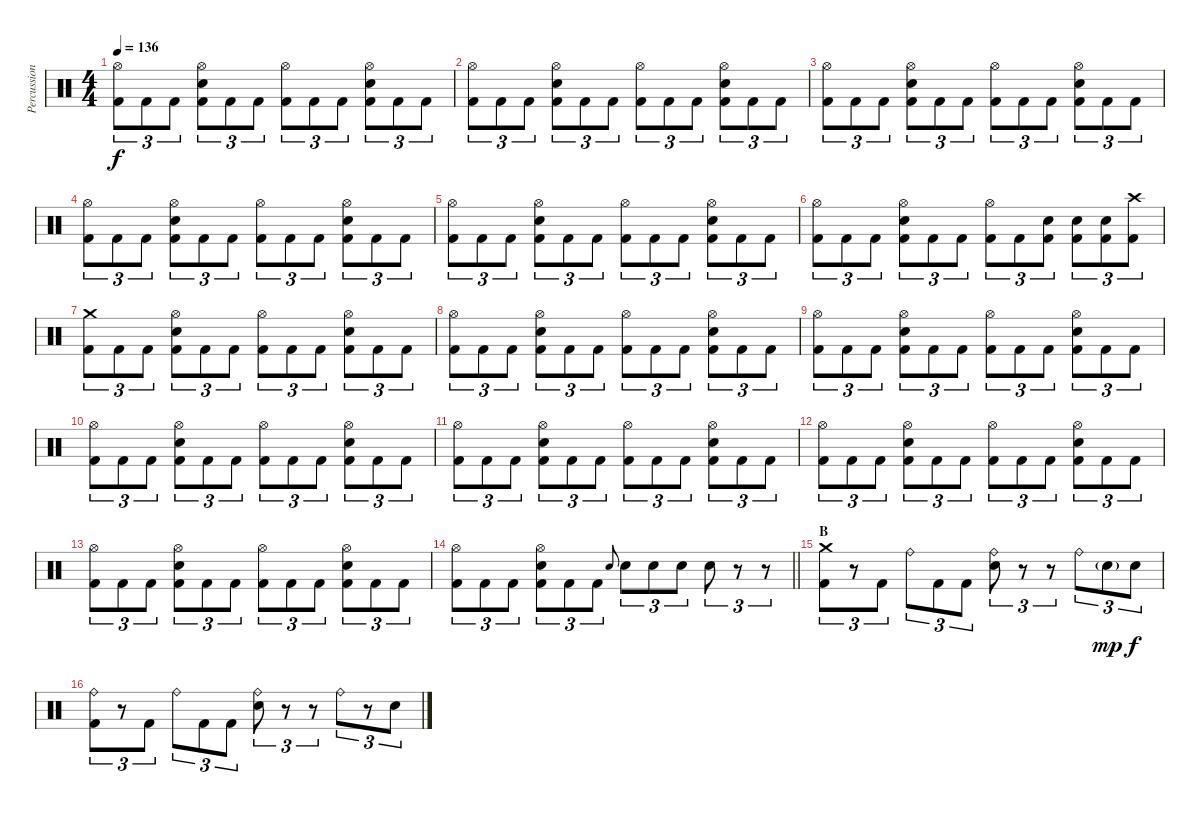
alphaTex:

\track ("Percussion" "Percussion") {instrument percussion}
\staff {score}
\articulation defaults
\ts (4 4)
\tempo 136
\clef neutral
\ks c
("Hi-Hat (open)" "Kick (hit) 2").8{tu (3 2) dy f} "Kick (hit) 2".8{tu (3 2)} "Kick (hit) 2".8{tu (3 2)} ("Hi-Hat (open)" "Electric Snare (hit)" "Kick (hit) 2").8{tu (3 2)} "Kick (hit) 2".8{tu (3 2)} "Kick (hit) 2".8{tu (3 2)} ("Hi-Hat (open)" "Kick (hit) 2").8{tu (3 2)} "Kick (hit) 2".8{tu (3 2)} "Kick (hit) 2".8{tu (3 2)} ("Hi-Hat (open)" "Electric Snare (hit)" "Kick (hit) 2").8{tu (3 2)} "Kick (hit) 2".8{tu (3 2)} "Kick (hit) 2".8{tu (3 2)} |
("Hi-Hat (open)" "Kick (hit) 2").8{tu (3 2)} "Kick (hit) 2".8{tu (3 2)} "Kick (hit) 2".8{tu (3 2)} ("Hi-Hat (open)" "Electric Snare (hit)" "Kick (hit) 2").8{tu (3 2)} "Kick (hit) 2".8{tu (3 2)} "Kick (hit) 2".8{tu (3 2)} ("Hi-Hat (open)" "Kick (hit) 2").8{tu (3 2)} "Kick (hit) 2".8{tu (3 2)} "Kick (hit) 2".8{tu (3 2)} ("Hi-Hat (open)" "Electric Snare (hit)" "Kick (hit) 2").8{tu (3 2)} "Kick (hit) 2".8{tu (3 2)} "Kick (hit) 2".8{tu (3 2)} |
("Hi-Hat (open)" "Kick (hit) 2").8{tu (3 2)} "Kick (hit) 2".8{tu (3 2)} "Kick (hit) 2".8{tu (3 2)} ("Hi-Hat (open)" "Electric Snare (hit)" "Kick (hit) 2").8{tu (3 2)} "Kick (hit) 2".8{tu (3 2)} "Kick (hit) 2".8{tu (3 2)} ("Hi-Hat (open)" "Kick (hit) 2").8{tu (3 2)} "Kick (hit) 2".8{tu (3 2)} "Kick (hit) 2".8{tu (3 2)} ("Hi-Hat (open)" "Electric Snare (hit)" "Kick (hit) 2").8{tu (3 2)} "Kick (hit) 2".8{tu (3 2)} "Kick (hit) 2".8{tu (3 2)} |
("Hi-Hat (open)" "Kick (hit) 2").8{tu (3 2)} "Kick (hit) 2".8{tu (3 2)} "Kick (hit) 2".8{tu (3 2)} ("Hi-Hat (open)" "Electric Snare (hit)" "Kick (hit) 2").8{tu (3 2)} "Kick (hit) 2".8{tu (3 2)} "Kick (hit) 2".8{tu (3 2)} ("Hi-Hat (open)" "Kick (hit) 2").8{tu (3 2)} "Kick (hit) 2".8{tu (3 2)} "Kick (hit) 2".8{tu (3 2)} ("Hi-Hat (open)" "Electric Snare (hit)" "Kick (hit) 2").8{tu (3 2)} "Kick (hit) 2".8{tu (3 2)} "Kick (hit) 2".8{tu (3 2)} |
("Hi-Hat (open)" "Kick (hit) 2").8{tu (3 2)} "Kick (hit) 2".8{tu (3 2)} "Kick (hit) 2".8{tu (3 2)} ("Hi-Hat (open)" "Electric Snare (hit)" "Kick (hit) 2").8{tu (3 2)} "Kick (hit) 2".8{tu (3 2)} "Kick (hit) 2".8{tu (3 2)} ("Hi-Hat (open)" "Kick (hit) 2").8{tu (3 2)} "Kick (hit) 2".8{tu (3 2)} "Kick (hit) 2".8{tu (3 2)} ("Hi-Hat (open)" "Electric Snare (hit)" "Kick (hit) 2").8{tu (3 2)} "Kick (hit) 2".8{tu (3 2)} "Kick (hit) 2".8{tu (3 2)} |
("Hi-Hat (open)" "Kick (hit) 2").8{tu (3 2)} "Kick (hit) 2".8{tu (3 2)} "Kick (hit) 2".8{tu (3 2)} ("Hi-Hat (open)" "Electric Snare (hit)" "Kick (hit) 2").8{tu (3 2)} "Kick (hit) 2".8{tu (3 2)} "Kick (hit) 2".8{tu (3 2)} ("Hi-Hat (open)" "Kick (hit) 2").8{tu (3 2)} "Kick (hit) 2".8{tu (3 2)} ("Electric Snare (hit)" "Kick (hit) 2").8{tu (3 2)} ("Electric Snare (hit)" "Kick (hit) 2").8{tu (3 2)} ("Electric Snare (hit)" "Kick (hit) 2").8{tu (3 2)} ("Crash high (hit)" "Kick (hit) 2").8{tu (3 2)} |
("Crash medium (hit)" "Kick (hit) 2").8{tu (3 2)} "Kick (hit) 2".8{tu (3 2)} "Kick (hit) 2".8{tu (3 2)} ("Hi-Hat (open)" "Electric Snare (hit)" "Kick (hit) 2").8{tu (3 2)} "Kick (hit) 2".8{tu (3 2)} "Kick (hit) 2".8{tu (3 2)} ("Hi-Hat (open)" "Kick (hit) 2").8{tu (3 2)} "Kick (hit) 2".8{tu (3 2)} "Kick (hit) 2".8{tu (3 2)} ("Hi-Hat (open)" "Electric Snare (hit)" "Kick (hit) 2").8{tu (3 2)} "Kick (hit) 2".8{tu (3 2)} "Kick (hit) 2".8{tu (3 2)} |
("Hi-Hat (open)" "Kick (hit) 2").8{tu (3 2)} "Kick (hit) 2".8{tu (3 2)} "Kick (hit) 2".8{tu (3 2)} ("Hi-Hat (open)" "Electric Snare (hit)" "Kick (hit) 2").8{tu (3 2)} "Kick (hit) 2".8{tu (3 2)} "Kick (hit) 2".8{tu (3 2)} ("Hi-Hat (open)" "Kick (hit) 2").8{tu (3 2)} "Kick (hit) 2".8{tu (3 2)} "Kick (hit) 2".8{tu (3 2)} ("Hi-Hat (open)" "Electric Snare (hit)" "Kick (hit) 2").8{tu (3 2)} "Kick (hit) 2".8{tu (3 2)} "Kick (hit) 2".8{tu (3 2)} |
("Hi-Hat (open)" "Kick (hit) 2").8{tu (3 2)} "Kick (hit) 2".8{tu (3 2)} "Kick (hit) 2".8{tu (3 2)} ("Hi-Hat (open)" "Electric Snare (hit)" "Kick (hit) 2").8{tu (3 2)} "Kick (hit) 2".8{tu (3 2)} "Kick (hit) 2".8{tu (3 2)} ("Hi-Hat (open)" "Kick (hit) 2").8{tu (3 2)} "Kick (hit) 2".8{tu (3 2)} "Kick (hit) 2".8{tu (3 2)} ("Hi-Hat (open)" "Electric Snare (hit)" "Kick (hit) 2").8{tu (3 2)} "Kick (hit) 2".8{tu (3 2)} "Kick (hit) 2".8{tu (3 2)} |
("Hi-Hat (open)" "Kick (hit) 2").8{tu (3 2)} "Kick (hit) 2".8{tu (3 2)} "Kick (hit) 2".8{tu (3 2)} ("Hi-Hat (open)" "Electric Snare (hit)" "Kick (hit) 2").8{tu (3 2)} "Kick (hit) 2".8{tu (3 2)} "Kick (hit) 2".8{tu (3 2)} ("Hi-Hat (open)" "Kick (hit) 2").8{tu (3 2)} "Kick (hit) 2".8{tu (3 2)} "Kick (hit) 2".8{tu (3 2)} ("Hi-Hat (open)" "Electric Snare (hit)" "Kick (hit) 2").8{tu (3 2)} "Kick (hit) 2".8{tu (3 2)} "Kick (hit) 2".8{tu (3 2)} |
("Hi-Hat (open)" "Kick (hit) 2").8{tu (3 2)} "Kick (hit) 2".8{tu (3 2)} "Kick (hit) 2".8{tu (3 2)} ("Hi-Hat (open)" "Electric Snare (hit)" "Kick (hit) 2").8{tu (3 2)} "Kick (hit) 2".8{tu (3 2)} "Kick (hit) 2".8{tu (3 2)} ("Hi-Hat (open)" "Kick (hit) 2").8{tu (3 2)} "Kick (hit) 2".8{tu (3 2)} "Kick (hit) 2".8{tu (3 2)} ("Hi-Hat (open)" "Electric Snare (hit)" "Kick (hit) 2").8{tu (3 2)} "Kick (hit) 2".8{tu (3 2)} "Kick (hit) 2".8{tu (3 2)} |
("Hi-Hat (open)" "Kick (hit) 2").8{tu (3 2)} "Kick (hit) 2".8{tu (3 2)} "Kick (hit) 2".8{tu (3 2)} ("Hi-Hat (open)" "Electric Snare (hit)" "Kick (hit) 2").8{tu (3 2)} "Kick (hit) 2".8{tu (3 2)} "Kick (hit) 2".8{tu (3 2)} ("Hi-Hat (open)" "Kick (hit) 2").8{tu (3 2)} "Kick (hit) 2".8{tu (3 2)} "Kick (hit) 2".8{tu (3 2)} ("Hi-Hat (open)" "Electric Snare (hit)" "Kick (hit) 2").8{tu (3 2)} "Kick (hit) 2".8{tu (3 2)} "Kick (hit) 2".8{tu (3 2)} |
("Hi-Hat (open)" "Kick (hit) 2").8{tu (3 2)} "Kick (hit) 2".8{tu (3 2)} "Kick (hit) 2".8{tu (3 2)} ("Hi-Hat (open)" "Electric Snare (hit)" "Kick (hit) 2").8{tu (3 2)} "Kick (hit) 2".8{tu (3 2)} "Kick (hit) 2".8{tu (3 2)} ("Hi-Hat (open)" "Kick (hit) 2").8{tu (3 2)} "Kick (hit) 2".8{tu (3 2)} "Kick (hit) 2".8{tu (3 2)} ("Hi-Hat (open)" "Electric Snare (hit)" "Kick (hit) 2").8{tu (3 2)} "Kick (hit) 2".8{tu (3 2)} "Kick (hit) 2".8{tu (3 2)} |
\barLineRight lightlight
("Hi-Hat (open)" "Kick (hit) 2").8{tu (3 2)} "Kick (hit) 2".8{tu (3 2)} "Kick (hit) 2".8{tu (3 2)} ("Hi-Hat (open)" "Electric Snare (hit)" "Kick (hit) 2").8{tu (3 2)} "Kick (hit) 2".8{tu (3 2)} "Kick (hit) 2".8{tu (3 2)} "Electric Snare (hit)".8{gr onbeat} "Electric Snare (hit)".8{tu (3 2)} "Electric Snare (hit)".8{tu (3 2)} "Electric Snare (hit)".8{tu (3 2)} "Electric Snare (hit)".8{tu (3 2)} r.8{tu (3 2)} r.8{tu (3 2)} |
\section ("" "B")
("Crash medium (hit)" "Kick (hit) 2").8{tu (3 2)} r.8{tu (3 2)} "Kick (hit) 2".8{tu (3 2)} "Ride (bell)".8{tu (3 2)} "Kick (hit) 2".8{tu (3 2)} "Kick (hit) 2".8{tu (3 2)} ("Ride (bell)" "Electric Snare (hit)").8{tu (3 2)} r.8{tu (3 2)} r.8{tu (3 2)} "Ride (bell)".8{tu (3 2)} "Electric Snare (hit)"{g}.8{tu (3 2) dy mp} "Electric Snare (hit)".8{tu (3 2) dy f} |
("Ride (bell)" "Kick (hit) 2").8{tu (3 2)} r.8{tu (3 2)} "Kick (hit) 2".8{tu (3 2)} "Ride (bell)".8{tu (3 2)} "Kick (hit) 2".8{tu (3 2)} "Kick (hit) 2".8{tu (3 2)} ("Ride (bell)" "Electric Snare (hit)").8{tu (3 2)} r.8{tu (3 2)} r.8{tu (3 2)} "Ride (bell)".8{tu (3 2)} r.8{tu (3 2)} "Electric Snare (hit)".8{tu (3 2)}
